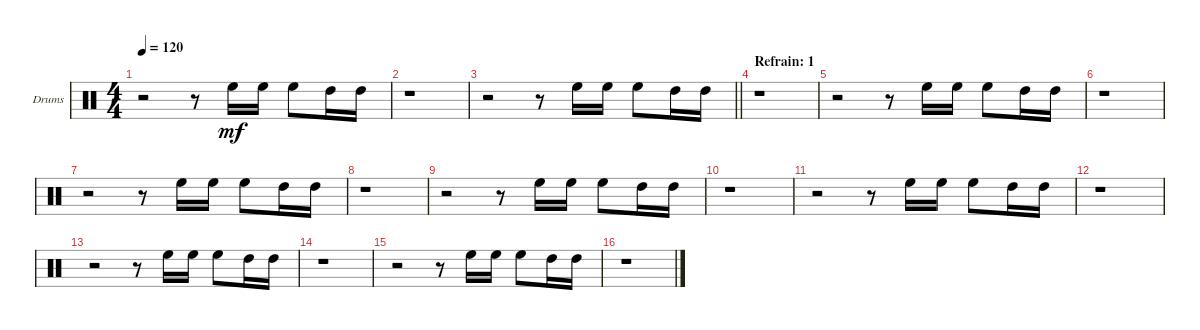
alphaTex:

\bracketExtendMode groupsimilarinstruments
\firstSystemTrackNameOrientation horizontal
\otherSystemsTrackNameOrientation horizontal
\track ("Drumkit" "Drums") {instrument percussion}
\staff {score}
\articulation defaults
\ts (4 4)
\tempo 120
\clef neutral
\ks c
r.2{dy mf} r.8 "High Floor Tom (hit)".16 "High Floor Tom (hit)".16 "High Floor Tom (hit)".8 "High Tom (hit)".16 "High Tom (hit)".16 |
r.1 |
\barLineRight lightlight
r.2 r.8 "High Floor Tom (hit)".16 "High Floor Tom (hit)".16 "High Floor Tom (hit)".8 "High Tom (hit)".16 "High Tom (hit)".16 |
\section ("" "Refrain: 1")
r.1 |
r.2 r.8 "High Floor Tom (hit)".16 "High Floor Tom (hit)".16 "High Floor Tom (hit)".8 "High Tom (hit)".16 "High Tom (hit)".16 |
r.1 |
r.2 r.8 "High Floor Tom (hit)".16 "High Floor Tom (hit)".16 "High Floor Tom (hit)".8 "High Tom (hit)".16 "High Tom (hit)".16 |
r.1 |
r.2 r.8 "High Floor Tom (hit)".16 "High Floor Tom (hit)".16 "High Floor Tom (hit)".8 "High Tom (hit)".16 "High Tom (hit)".16 |
r.1 |
r.2 r.8 "High Floor Tom (hit)".16 "High Floor Tom (hit)".16 "High Floor Tom (hit)".8 "High Tom (hit)".16 "High Tom (hit)".16 |
r.1 |
r.2 r.8 "High Floor Tom (hit)".16 "High Floor Tom (hit)".16 "High Floor Tom (hit)".8 "High Tom (hit)".16 "High Tom (hit)".16 |
r.1 |
r.2 r.8 "High Floor Tom (hit)".16 "High Floor Tom (hit)".16 "High Floor Tom (hit)".8 "High Tom (hit)".16 "High Tom (hit)".16 |
r.1
